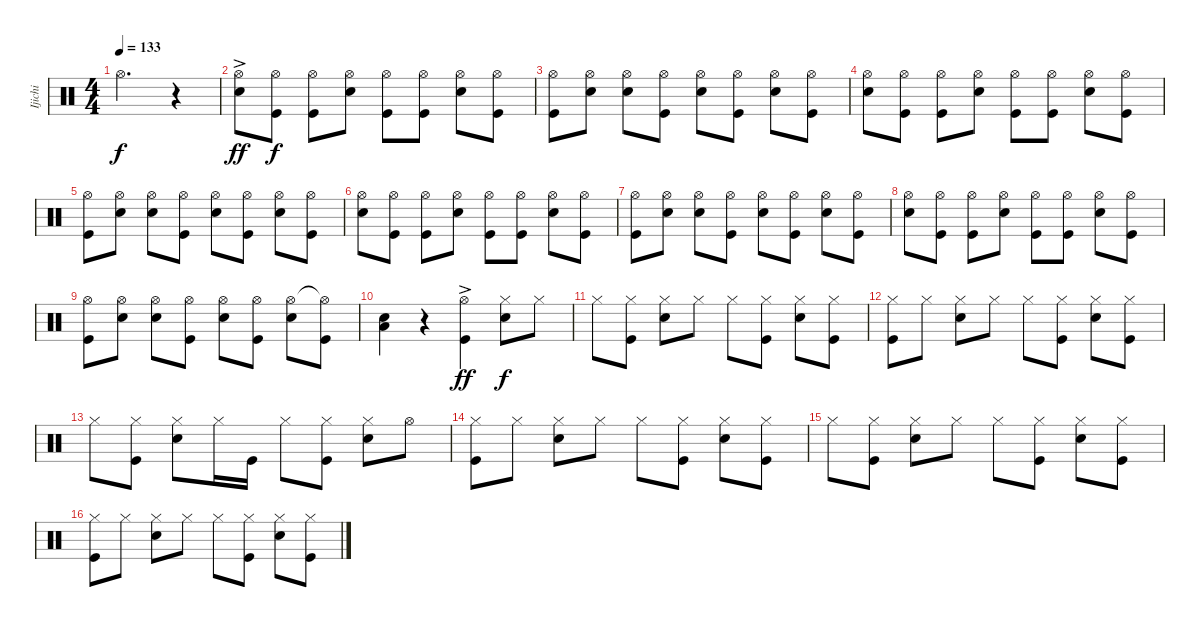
\track ("Ijichi" "Ijichi") {instrument percussion}
\staff {score}
\articulation defaults
\ts (4 4)
\tempo 133
\clef neutral
\ks c "Hi-Hat (open)"{t}.2{d dy f}
r.4 |
("Hi-Hat (open)"{ac} "Snare (hit) 2").8{dy ff} ("Hi-Hat (open)" "Kick (hit)").8{dy f} ("Hi-Hat (open)" "Kick (hit)").8 ("Hi-Hat (open)" "Snare (hit) 2").8 ("Hi-Hat (open)" "Kick (hit)").8 ("Hi-Hat (open)" "Kick (hit)").8 ("Hi-Hat (open)" "Snare (hit) 2").8 ("Hi-Hat (open)" "Kick (hit)").8 |
("Hi-Hat (open)" "Kick (hit)").8 ("Hi-Hat (open)" "Snare (hit) 2").8 ("Hi-Hat (open)" "Snare (hit) 2").8 ("Hi-Hat (open)" "Kick (hit)").8 ("Hi-Hat (open)" "Snare (hit) 2").8 ("Hi-Hat (open)" "Kick (hit)").8 ("Hi-Hat (open)" "Snare (hit) 2").8 ("Hi-Hat (open)" "Kick (hit)").8 |
("Hi-Hat (open)" "Snare (hit) 2").8 ("Hi-Hat (open)" "Kick (hit)").8 ("Hi-Hat (open)" "Kick (hit)").8 ("Hi-Hat (open)" "Snare (hit) 2").8 ("Hi-Hat (open)" "Kick (hit)").8 ("Hi-Hat (open)" "Kick (hit)").8 ("Hi-Hat (open)" "Snare (hit) 2").8 ("Hi-Hat (open)" "Kick (hit)").8 |
("Hi-Hat (open)" "Kick (hit)").8 ("Hi-Hat (open)" "Snare (hit) 2").8 ("Hi-Hat (open)" "Snare (hit) 2").8 ("Hi-Hat (open)" "Kick (hit)").8 ("Hi-Hat (open)" "Snare (hit) 2").8 ("Hi-Hat (open)" "Kick (hit)").8 ("Hi-Hat (open)" "Snare (hit) 2").8 ("Hi-Hat (open)" "Kick (hit)").8 |
("Hi-Hat (open)" "Snare (hit) 2").8 ("Hi-Hat (open)" "Kick (hit)").8 ("Hi-Hat (open)" "Kick (hit)").8 ("Hi-Hat (open)" "Snare (hit) 2").8 ("Hi-Hat (open)" "Kick (hit)").8 ("Hi-Hat (open)" "Kick (hit)").8 ("Hi-Hat (open)" "Snare (hit) 2").8 ("Hi-Hat (open)" "Kick (hit)").8 |
("Hi-Hat (open)" "Kick (hit)").8 ("Hi-Hat (open)" "Snare (hit) 2").8 ("Hi-Hat (open)" "Snare (hit) 2").8 ("Hi-Hat (open)" "Kick (hit)").8 ("Hi-Hat (open)" "Snare (hit) 2").8 ("Hi-Hat (open)" "Kick (hit)").8 ("Hi-Hat (open)" "Snare (hit) 2").8 ("Hi-Hat (open)" "Kick (hit)").8 |
("Hi-Hat (open)" "Snare (hit) 2").8 ("Hi-Hat (open)" "Kick (hit)").8 ("Hi-Hat (open)" "Kick (hit)").8 ("Hi-Hat (open)" "Snare (hit) 2").8 ("Hi-Hat (open)" "Kick (hit)").8 ("Hi-Hat (open)" "Kick (hit)").8 ("Hi-Hat (open)" "Snare (hit) 2").8 ("Hi-Hat (open)" "Kick (hit)").8 |
("Hi-Hat (open)" "Kick (hit)").8 ("Hi-Hat (open)" "Snare (hit) 2").8 ("Hi-Hat (open)" "Snare (hit) 2").8 ("Hi-Hat (open)" "Kick (hit)").8 ("Hi-Hat (open)" "Snare (hit) 2").8 ("Hi-Hat (open)" "Kick (hit)").8 ("Hi-Hat (open)" "Snare (hit) 2").8 ("Hi-Hat (open)"{t} "Kick (hit)").8 |
("Snare (hit) 2" "Low Tom (hit)").4 r.4 ("Hi-Hat (open)"{ac} "Kick (hit)").4{dy ff} ("Hi-Hat (closed)" "Snare (hit) 2").8{dy f} "Hi-Hat (closed)".8 |
"Hi-Hat (closed)".8 ("Hi-Hat (closed)" "Kick (hit)").8 ("Hi-Hat (closed)" "Snare (hit) 2").8 "Hi-Hat (closed)".8 "Hi-Hat (closed)".8 ("Hi-Hat (closed)" "Kick (hit)").8 ("Hi-Hat (closed)" "Snare (hit) 2").8 ("Hi-Hat (closed)" "Kick (hit)").8 |
("Hi-Hat (closed)" "Kick (hit)").8 "Hi-Hat (closed)".8 ("Hi-Hat (closed)" "Snare (hit) 2").8 "Hi-Hat (closed)".8 "Hi-Hat (closed)".8 ("Hi-Hat (closed)" "Kick (hit)").8 ("Hi-Hat (closed)" "Snare (hit) 2").8 ("Hi-Hat (closed)" "Kick (hit)").8 |
"Hi-Hat (closed)".8 ("Hi-Hat (closed)" "Kick (hit)").8 ("Hi-Hat (closed)" "Snare (hit) 2").8 "Hi-Hat (closed)".16 "Kick (hit)".16 "Hi-Hat (closed)".8 ("Hi-Hat (closed)" "Kick (hit)").8 ("Hi-Hat (closed)" "Snare (hit) 2").8 "Hi-Hat (open)".8 |
("Hi-Hat (closed)" "Kick (hit)").8 "Hi-Hat (closed)".8 ("Hi-Hat (closed)" "Snare (hit) 2").8 "Hi-Hat (closed)".8 "Hi-Hat (closed)".8 ("Hi-Hat (closed)" "Kick (hit)").8 ("Hi-Hat (closed)" "Snare (hit) 2").8 ("Hi-Hat (closed)" "Kick (hit)").8 |
"Hi-Hat (closed)".8 ("Hi-Hat (closed)" "Kick (hit)").8 ("Hi-Hat (closed)" "Snare (hit) 2").8 "Hi-Hat (closed)".8 "Hi-Hat (closed)".8 ("Hi-Hat (closed)" "Kick (hit)").8 ("Hi-Hat (closed)" "Snare (hit) 2").8 ("Hi-Hat (closed)" "Kick (hit)").8 |
("Hi-Hat (closed)" "Kick (hit)").8 "Hi-Hat (closed)".8 ("Hi-Hat (closed)" "Snare (hit) 2").8 "Hi-Hat (closed)".8 "Hi-Hat (closed)".8 ("Hi-Hat (closed)" "Kick (hit)").8 ("Hi-Hat (closed)" "Snare (hit) 2").8 ("Hi-Hat (closed)" "Kick (hit)").8
